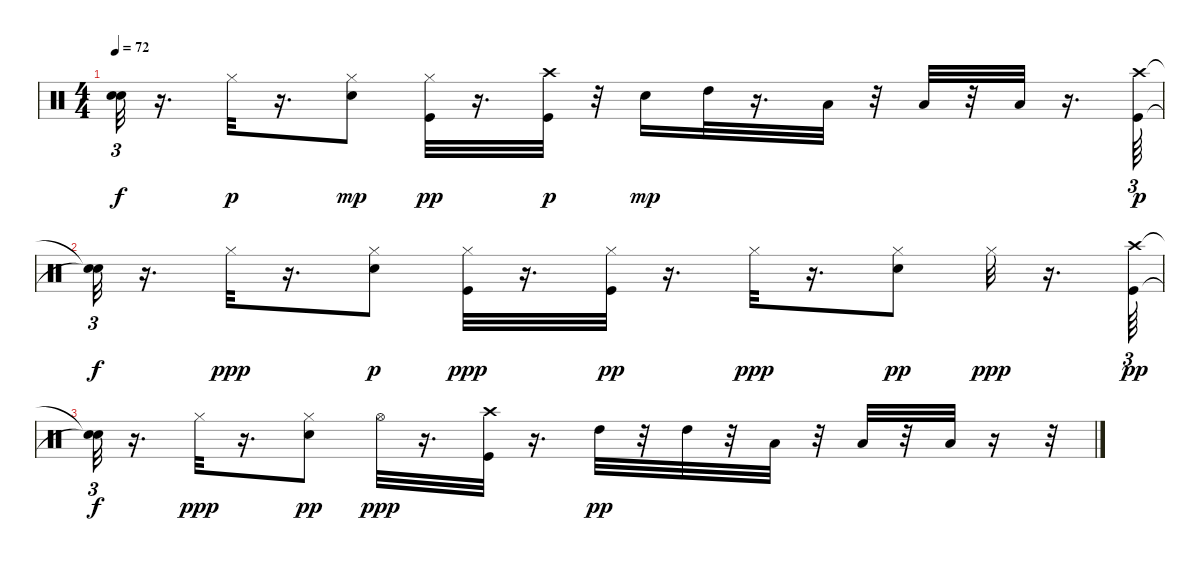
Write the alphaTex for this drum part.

\track (" " " ") {instrument percussion}
\staff {score}
\articulation defaults
\ts (4 4)
\tempo 72
\clef neutral
\ks c
("Snare (hit)"{t} "Snare (hit)"{t}).32{tu (3 2) dy f} r.16{d} "Hi-Hat (closed)".32{dy p} r.16{d} ("Electric Snare (hit)" "Hi-Hat (closed)").8{dy mp} ("Kick (hit)" "Hi-Hat (closed)").32{dy pp} r.16{d} ("Kick (hit)" "Crash high (hit)").32{dy p} r.32 "Electric Snare (hit)".16{dy mp} "High Tom (hit)".32 r.16{d} "Low Tom (hit)".32 r.32 "Low Tom (hit)".32 r.32 "Low Floor Tom (hit)".32 r.16{d} ("Kick (hit)" "Crash high (hit)").64{tu (3 2) dy p} |
("Snare (hit)"{t} "Snare (hit)"{t}).32{tu (3 2) dy f} r.16{d} "Hi-Hat (closed)".32{dy ppp} r.16{d} ("Electric Snare (hit)" "Hi-Hat (closed)").8{dy p} ("Kick (hit)" "Hi-Hat (closed)").32{dy ppp} r.16{d} ("Kick (hit)" "Hi-Hat (closed)").32{dy pp} r.16{d} "Hi-Hat (closed)".32{dy ppp} r.16{d} ("Electric Snare (hit)" "Hi-Hat (closed)").8{dy pp} "Hi-Hat (closed)".32{dy ppp} r.16{d} ("Kick (hit)" "Crash high (hit)").64{tu (3 2) dy pp} |
("Snare (hit)"{t} "Snare (hit)"{t}).32{tu (3 2) dy f} r.16{d} "Hi-Hat (closed)".32{dy ppp} r.16{d} ("Electric Snare (hit)" "Hi-Hat (closed)").8{dy pp} "Hi-Hat (open)".32{dy ppp} r.16{d} ("Kick (hit)" "Crash high (hit)").32 r.16{d} "High Tom (hit)".32{dy pp} r.32 "High Tom (hit)".32 r.32 "Low Tom (hit)".32 r.32 "Low Tom (hit)".32 r.32 "Low Floor Tom (hit)".32 r.16 r.32
